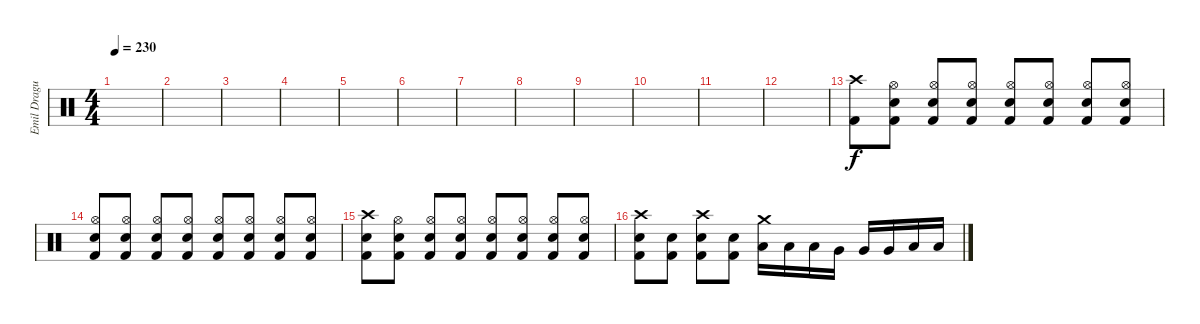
\track ("Emil Dragutinovic" "Emil Dragu") {instrument percussion}
\staff {score}
\articulation defaults
\ts (4 4)
\tempo 230
\clef neutral
\ks c
|
|
|
|
|
|
|
|
|
|
|
|
("Crash high (hit)" "Kick (hit) 2").8 ("Hi-Hat (open)" "Electric Snare (hit)" "Kick (hit) 2").8 ("Hi-Hat (open)" "Electric Snare (hit)" "Kick (hit) 2").8 ("Hi-Hat (open)" "Electric Snare (hit)" "Kick (hit) 2").8 ("Hi-Hat (open)" "Electric Snare (hit)" "Kick (hit) 2").8 ("Hi-Hat (open)" "Electric Snare (hit)" "Kick (hit) 2").8 ("Hi-Hat (open)" "Electric Snare (hit)" "Kick (hit) 2").8 ("Hi-Hat (open)" "Electric Snare (hit)" "Kick (hit) 2").8 |
("Hi-Hat (open)" "Electric Snare (hit)" "Kick (hit) 2").8 ("Hi-Hat (open)" "Electric Snare (hit)" "Kick (hit) 2").8 ("Hi-Hat (open)" "Electric Snare (hit)" "Kick (hit) 2").8 ("Hi-Hat (open)" "Electric Snare (hit)" "Kick (hit) 2").8 ("Hi-Hat (open)" "Electric Snare (hit)" "Kick (hit) 2").8 ("Hi-Hat (open)" "Electric Snare (hit)" "Kick (hit) 2").8 ("Hi-Hat (open)" "Electric Snare (hit)" "Kick (hit) 2").8 ("Hi-Hat (open)" "Electric Snare (hit)" "Kick (hit) 2").8 |
("Crash high (hit)" "Electric Snare (hit)" "Kick (hit) 2").8 ("Hi-Hat (open)" "Electric Snare (hit)" "Kick (hit) 2").8 ("Hi-Hat (open)" "Electric Snare (hit)" "Kick (hit) 2").8 ("Hi-Hat (open)" "Electric Snare (hit)" "Kick (hit) 2").8 ("Hi-Hat (open)" "Electric Snare (hit)" "Kick (hit) 2").8 ("Hi-Hat (open)" "Electric Snare (hit)" "Kick (hit) 2").8 ("Hi-Hat (open)" "Electric Snare (hit)" "Kick (hit) 2").8 ("Hi-Hat (open)" "Electric Snare (hit)" "Kick (hit) 2").8 |
("Crash high (hit)" "Electric Snare (hit)" "Kick (hit) 2").8 ("Electric Snare (hit)" "Kick (hit) 2").8 ("Crash high (hit)" "Electric Snare (hit)" "Kick (hit) 2").8 ("Electric Snare (hit)" "Kick (hit) 2").8 ("Crash medium (hit)" "Low Tom (hit)").16 "Low Tom (hit)".16 "Low Tom (hit)".16 "Very Low Tom (hit)".16 "Very Low Tom (hit)".16 "Very Low Tom (hit)".16 "Low Floor Tom (hit)".16 "Low Floor Tom (hit)".16
